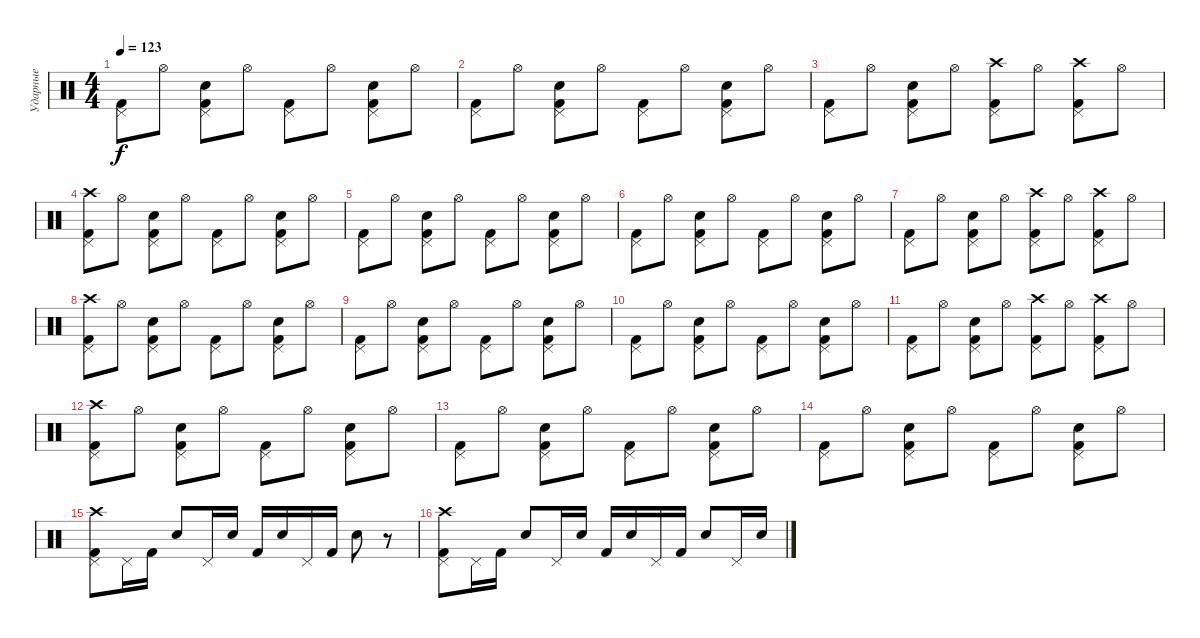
\track ("Ударные" "Ударные") {instrument percussion}
\staff {score}
\articulation defaults
\ts (4 4)
\tempo 123
\clef neutral
\ks c
("Kick (hit) 2" "Pedal Hi-Hat (hit)").8{dy f} "Hi-Hat (open)".8 ("Kick (hit) 2" "Pedal Hi-Hat (hit)" "Hand Clap (hit)").8 "Hi-Hat (open)".8 ("Kick (hit) 2" "Pedal Hi-Hat (hit)").8 "Hi-Hat (open)".8 ("Kick (hit) 2" "Pedal Hi-Hat (hit)" "Hand Clap (hit)").8 "Hi-Hat (open)".8 |
("Kick (hit) 2" "Pedal Hi-Hat (hit)").8 "Hi-Hat (open)".8 ("Kick (hit) 2" "Pedal Hi-Hat (hit)" "Hand Clap (hit)").8 "Hi-Hat (open)".8 ("Kick (hit) 2" "Pedal Hi-Hat (hit)").8 "Hi-Hat (open)".8 ("Kick (hit) 2" "Pedal Hi-Hat (hit)" "Hand Clap (hit)").8 "Hi-Hat (open)".8 |
("Kick (hit) 2" "Pedal Hi-Hat (hit)").8 "Hi-Hat (open)".8 ("Kick (hit) 2" "Pedal Hi-Hat (hit)" "Hand Clap (hit)").8 "Hi-Hat (open)".8 ("Kick (hit) 2" "Pedal Hi-Hat (hit)" "Crash high (hit)").8 "Hi-Hat (open)".8 ("Kick (hit) 2" "Pedal Hi-Hat (hit)" "Crash high (hit)").8 "Hi-Hat (open)".8 |
("Kick (hit) 2" "Pedal Hi-Hat (hit)" "Crash high (hit)").8 "Hi-Hat (open)".8 ("Kick (hit) 2" "Pedal Hi-Hat (hit)" "Hand Clap (hit)").8 "Hi-Hat (open)".8 ("Kick (hit) 2" "Pedal Hi-Hat (hit)").8 "Hi-Hat (open)".8 ("Kick (hit) 2" "Pedal Hi-Hat (hit)" "Hand Clap (hit)").8 "Hi-Hat (open)".8 |
("Kick (hit) 2" "Pedal Hi-Hat (hit)").8 "Hi-Hat (open)".8 ("Kick (hit) 2" "Pedal Hi-Hat (hit)" "Hand Clap (hit)").8 "Hi-Hat (open)".8 ("Kick (hit) 2" "Pedal Hi-Hat (hit)").8 "Hi-Hat (open)".8 ("Kick (hit) 2" "Pedal Hi-Hat (hit)" "Hand Clap (hit)").8 "Hi-Hat (open)".8 |
("Kick (hit) 2" "Pedal Hi-Hat (hit)").8 "Hi-Hat (open)".8 ("Kick (hit) 2" "Pedal Hi-Hat (hit)" "Hand Clap (hit)").8 "Hi-Hat (open)".8 ("Kick (hit) 2" "Pedal Hi-Hat (hit)").8 "Hi-Hat (open)".8 ("Kick (hit) 2" "Pedal Hi-Hat (hit)" "Hand Clap (hit)").8 "Hi-Hat (open)".8 |
("Kick (hit) 2" "Pedal Hi-Hat (hit)").8 "Hi-Hat (open)".8 ("Kick (hit) 2" "Pedal Hi-Hat (hit)" "Hand Clap (hit)").8 "Hi-Hat (open)".8 ("Kick (hit) 2" "Pedal Hi-Hat (hit)" "Crash high (hit)").8 "Hi-Hat (open)".8 ("Kick (hit) 2" "Pedal Hi-Hat (hit)" "Crash high (hit)").8 "Hi-Hat (open)".8 |
("Kick (hit) 2" "Pedal Hi-Hat (hit)" "Crash high (hit)").8 "Hi-Hat (open)".8 ("Kick (hit) 2" "Pedal Hi-Hat (hit)" "Hand Clap (hit)").8 "Hi-Hat (open)".8 ("Kick (hit) 2" "Pedal Hi-Hat (hit)").8 "Hi-Hat (open)".8 ("Kick (hit) 2" "Pedal Hi-Hat (hit)" "Hand Clap (hit)").8 "Hi-Hat (open)".8 |
("Kick (hit) 2" "Pedal Hi-Hat (hit)").8 "Hi-Hat (open)".8 ("Kick (hit) 2" "Pedal Hi-Hat (hit)" "Hand Clap (hit)").8 "Hi-Hat (open)".8 ("Kick (hit) 2" "Pedal Hi-Hat (hit)").8 "Hi-Hat (open)".8 ("Kick (hit) 2" "Pedal Hi-Hat (hit)" "Hand Clap (hit)").8 "Hi-Hat (open)".8 |
("Kick (hit) 2" "Pedal Hi-Hat (hit)").8 "Hi-Hat (open)".8 ("Kick (hit) 2" "Pedal Hi-Hat (hit)" "Hand Clap (hit)").8 "Hi-Hat (open)".8 ("Kick (hit) 2" "Pedal Hi-Hat (hit)").8 "Hi-Hat (open)".8 ("Kick (hit) 2" "Pedal Hi-Hat (hit)" "Hand Clap (hit)").8 "Hi-Hat (open)".8 |
("Kick (hit) 2" "Pedal Hi-Hat (hit)").8 "Hi-Hat (open)".8 ("Kick (hit) 2" "Pedal Hi-Hat (hit)" "Hand Clap (hit)").8 "Hi-Hat (open)".8 ("Kick (hit) 2" "Pedal Hi-Hat (hit)" "Crash high (hit)").8 "Hi-Hat (open)".8 ("Kick (hit) 2" "Pedal Hi-Hat (hit)" "Crash high (hit)").8 "Hi-Hat (open)".8 |
("Kick (hit) 2" "Pedal Hi-Hat (hit)" "Crash high (hit)").8 "Hi-Hat (open)".8 ("Kick (hit) 2" "Pedal Hi-Hat (hit)" "Hand Clap (hit)").8 "Hi-Hat (open)".8 ("Kick (hit) 2" "Pedal Hi-Hat (hit)").8 "Hi-Hat (open)".8 ("Kick (hit) 2" "Pedal Hi-Hat (hit)" "Hand Clap (hit)").8 "Hi-Hat (open)".8 |
("Kick (hit) 2" "Pedal Hi-Hat (hit)").8 "Hi-Hat (open)".8 ("Kick (hit) 2" "Pedal Hi-Hat (hit)" "Hand Clap (hit)").8 "Hi-Hat (open)".8 ("Kick (hit) 2" "Pedal Hi-Hat (hit)").8 "Hi-Hat (open)".8 ("Kick (hit) 2" "Pedal Hi-Hat (hit)" "Hand Clap (hit)").8 "Hi-Hat (open)".8 |
("Kick (hit) 2" "Pedal Hi-Hat (hit)").8 "Hi-Hat (open)".8 ("Kick (hit) 2" "Pedal Hi-Hat (hit)" "Hand Clap (hit)").8 "Hi-Hat (open)".8 ("Kick (hit) 2" "Pedal Hi-Hat (hit)").8 "Hi-Hat (open)".8 ("Kick (hit) 2" "Pedal Hi-Hat (hit)" "Hand Clap (hit)").8 "Hi-Hat (open)".8 |
("Kick (hit) 2" "Pedal Hi-Hat (hit)" "Crash high (hit)").8 "Pedal Hi-Hat (hit)".16 "Kick (hit) 2".16 "Snare (hit) 2".8 "Pedal Hi-Hat (hit)".16 "Snare (hit) 2".16 "Kick (hit) 2".16 "Snare (hit) 2".16 "Pedal Hi-Hat (hit)".16 "Kick (hit) 2".16 "Snare (hit) 2".8 r.8 |
("Kick (hit) 2" "Pedal Hi-Hat (hit)" "Crash high (hit)").8 "Pedal Hi-Hat (hit)".16 "Kick (hit) 2".16 "Snare (hit) 2".8 "Pedal Hi-Hat (hit)".16 "Snare (hit) 2".16 "Kick (hit) 2".16 "Snare (hit) 2".16 "Pedal Hi-Hat (hit)".16 "Kick (hit) 2".16 "Snare (hit) 2".8 "Pedal Hi-Hat (hit)".16 "Snare (hit) 2".16
